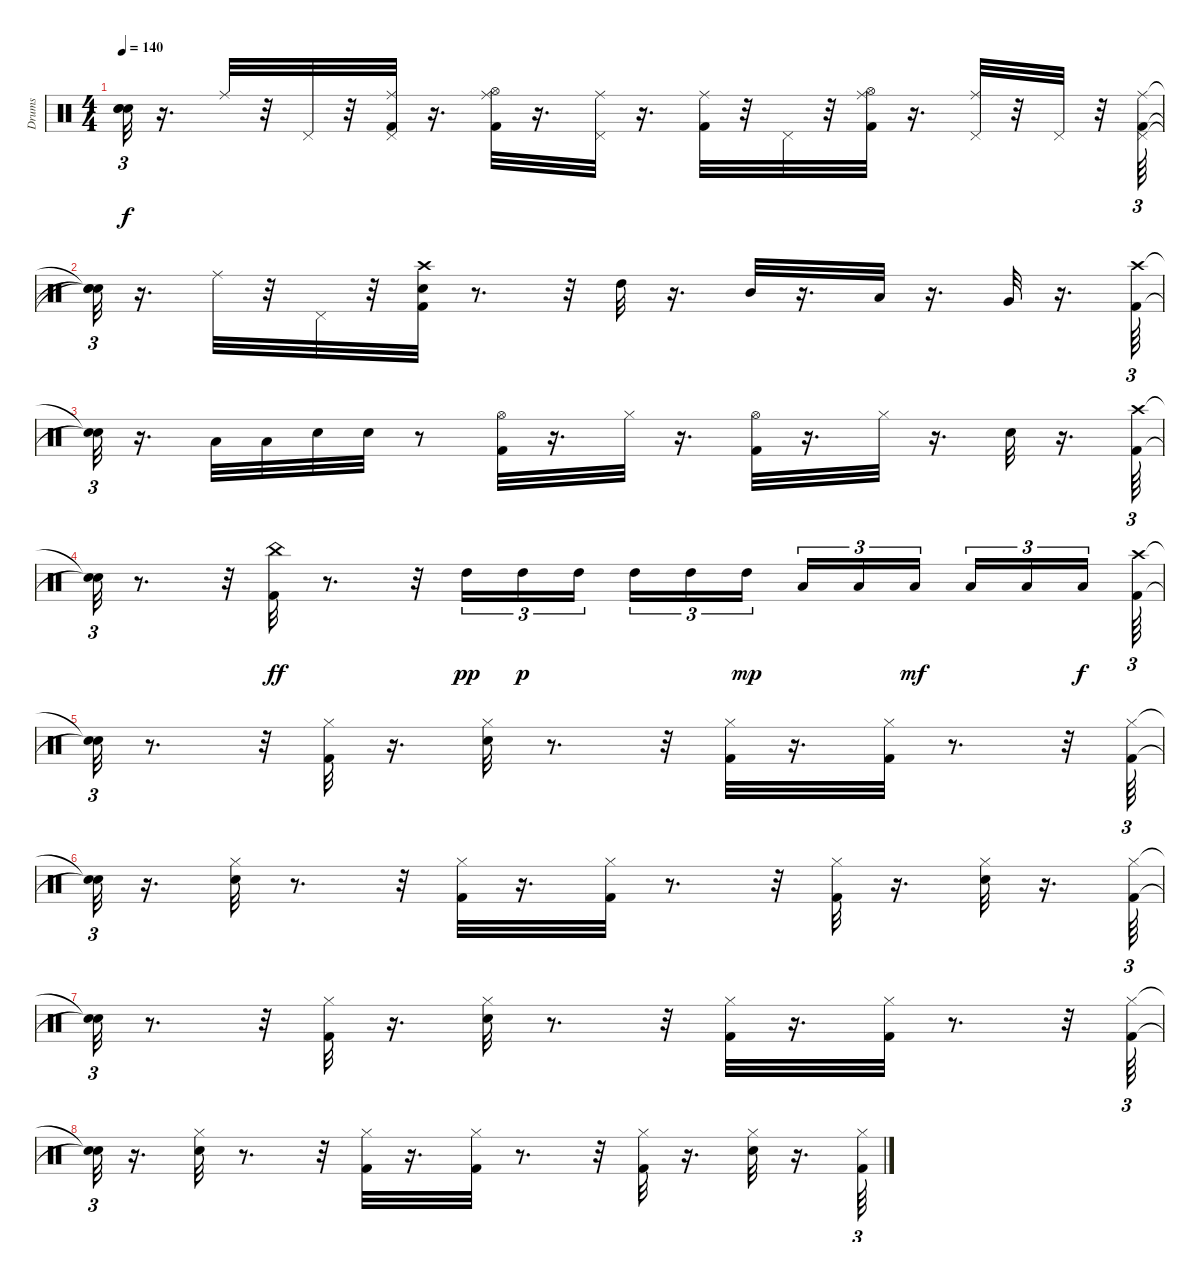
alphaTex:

\track ("Drums" "Drums") {instrument percussion}
\staff {score}
\articulation defaults
\ts (4 4)
\tempo 140
\clef neutral
\ks c
("Snare (hit)"{t} "Snare (hit)"{t} "Snare (hit)"{t}).32{tu (3 2) dy f} r.16{d} "Ride (middle)".32 r.32 "Pedal Hi-Hat (hit)".32 r.32 ("Ride (middle)" "Pedal Hi-Hat (hit)" "Kick (hit) 2").32 r.16{d} ("Hi-Hat (open)" "Ride (middle)" "Kick (hit) 2").32 r.16{d} ("Pedal Hi-Hat (hit)" "Ride (middle)").32 r.16{d} ("Ride (middle)" "Kick (hit) 2").32 r.32 "Pedal Hi-Hat (hit)".32 r.32 ("Hi-Hat (open)" "Kick (hit) 2" "Ride (middle)").32 r.16{d} ("Pedal Hi-Hat (hit)" "Ride (middle)").32 r.32 "Pedal Hi-Hat (hit)".32 r.32 ("Ride (middle)" "Kick (hit) 2" "Pedal Hi-Hat (hit)").64{tu (3 2)} |
("Snare (hit)"{t} "Snare (hit)"{t} "Snare (hit)"{t}).32{tu (3 2)} r.16{d} "Ride (middle)".32 r.32 "Pedal Hi-Hat (hit)".32 r.32 ("Snare (hit) 2" "Kick (hit) 2" "Crash high (hit)").32 r.8{d} r.32 "High Tom (hit)".32 r.16{d} "Mid Tom (hit)".32 r.16{d} "Low Tom (hit)".32 r.16{d} "Very Low Tom (hit)".32 r.16{d} ("Kick (hit) 2" "Crash high (hit)").64{tu (3 2)} |
("Snare (hit)"{t} "Snare (hit)"{t}).32{tu (3 2)} r.16{d} "Low Tom (hit)".32 "Low Tom (hit)".32 "Snare (hit) 2".32 "Snare (hit) 2".32 r.8 ("Hi-Hat (open)" "Kick (hit) 2").32 r.16{d} "Hi-Hat (closed)".32 r.16{d} ("Hi-Hat (open)" "Kick (hit) 2").32 r.16{d} "Hi-Hat (closed)".32 r.16{d} "Snare (hit) 2".32 r.16{d} ("Crash high (hit)" "Kick (hit) 2").64{tu (3 2)} |
("Snare (hit)"{t} "Snare (hit)"{t}).32{tu (3 2)} r.8{d} r.32 ("China (hit)" "Kick (hit) 2").32{dy ff} r.8{d} r.32 "High Tom (hit)".16{tu (3 2) dy pp} "High Tom (hit)".16{tu (3 2) dy p} "High Tom (hit)".16{tu (3 2) beam splitsecondary} "High Tom (hit)".16{tu (3 2)} "High Tom (hit)".16{tu (3 2)} "High Tom (hit)".16{tu (3 2) dy mp beam splitsecondary} "Low Tom (hit)".16{tu (3 2)} "Low Tom (hit)".16{tu (3 2)} "Low Tom (hit)".16{tu (3 2) dy mf beam splitsecondary} "Low Tom (hit)".16{tu (3 2)} "Low Tom (hit)".16{tu (3 2)} "Low Tom (hit)".16{tu (3 2) dy f beam splitsecondary} ("Crash high (hit)" "Kick (hit) 2").64{tu (3 2)} |
("Snare (hit)"{t} "Snare (hit)"{t}).32{tu (3 2)} r.8{d} r.32 ("Hi-Hat (closed)" "Kick (hit) 2").32 r.16{d} ("Hi-Hat (closed)" "Snare (hit) 2").32 r.8{d} r.32 ("Hi-Hat (closed)" "Kick (hit) 2").32 r.16{d} ("Hi-Hat (closed)" "Kick (hit) 2").32 r.8{d} r.32 ("Hi-Hat (closed)" "Kick (hit) 2").64{tu (3 2)} |
("Snare (hit)"{t} "Snare (hit)"{t}).32{tu (3 2)} r.16{d} ("Hi-Hat (closed)" "Snare (hit) 2").32 r.8{d} r.32 ("Hi-Hat (closed)" "Kick (hit) 2").32 r.16{d} ("Hi-Hat (closed)" "Kick (hit) 2").32 r.8{d} r.32 ("Hi-Hat (closed)" "Kick (hit) 2").32 r.16{d} ("Hi-Hat (closed)" "Snare (hit) 2").32 r.16{d} ("Hi-Hat (closed)" "Kick (hit) 2").64{tu (3 2)} |
("Snare (hit)"{t} "Snare (hit)"{t}).32{tu (3 2)} r.8{d} r.32 ("Hi-Hat (closed)" "Kick (hit) 2").32 r.16{d} ("Hi-Hat (closed)" "Snare (hit) 2").32 r.8{d} r.32 ("Hi-Hat (closed)" "Kick (hit) 2").32 r.16{d} ("Hi-Hat (closed)" "Kick (hit) 2").32 r.8{d} r.32 ("Hi-Hat (closed)" "Kick (hit) 2").64{tu (3 2)} |
("Snare (hit)"{t} "Snare (hit)"{t}).32{tu (3 2)} r.16{d} ("Hi-Hat (closed)" "Snare (hit) 2").32 r.8{d} r.32 ("Hi-Hat (closed)" "Kick (hit) 2").32 r.16{d} ("Kick (hit) 2" "Hi-Hat (closed)").32 r.8{d} r.32 ("Hi-Hat (closed)" "Kick (hit) 2").32 r.16{d} ("Hi-Hat (closed)" "Snare (hit) 2").32 r.16{d} ("Hi-Hat (closed)" "Kick (hit) 2").64{tu (3 2)}
